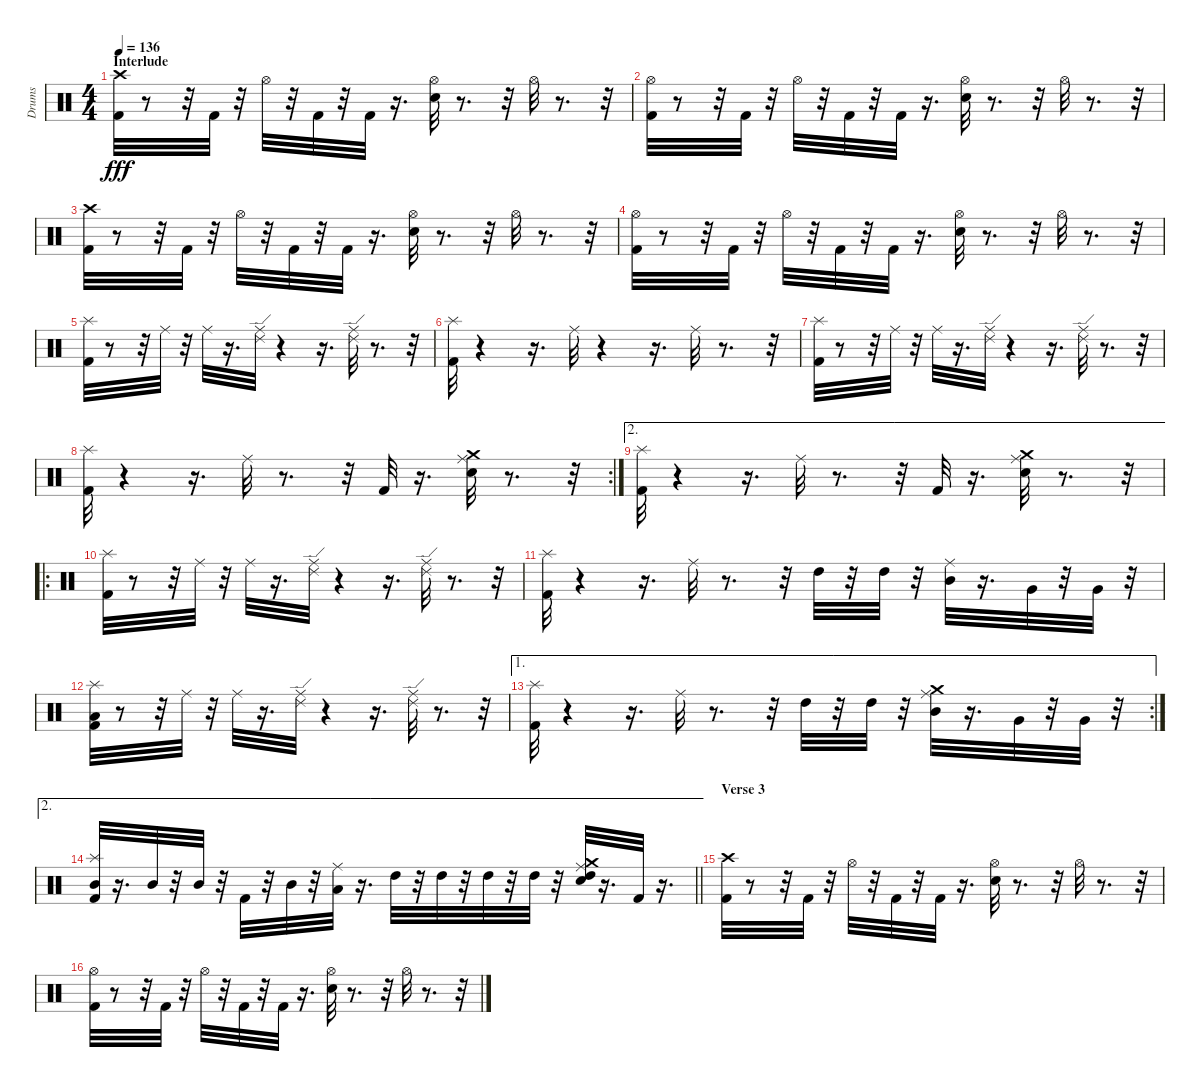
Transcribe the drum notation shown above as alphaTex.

\track ("Drums" "Drums") {instrument percussion}
\staff {score}
\articulation defaults
\ts (4 4)
\section ("" "Interlude")
\tempo 136
\clef neutral
\ks c
("Crash high (hit)" "Kick (hit) 2").32{dy fff} r.8 r.32 "Kick (hit) 2".32 r.32 "Hi-Hat (open)".32 r.32 "Kick (hit) 2".32 r.32 "Kick (hit) 2".32 r.16{d} ("Hi-Hat (open)" "Electric Snare (hit)").32 r.8{d} r.32 "Hi-Hat (open)".32 r.8{d} r.32 |
("Hi-Hat (open)" "Kick (hit) 2").32 r.8 r.32 "Kick (hit) 2".32 r.32 "Hi-Hat (open)".32 r.32 "Kick (hit) 2".32 r.32 "Kick (hit) 2".32 r.16{d} ("Hi-Hat (open)" "Electric Snare (hit)").32 r.8{d} r.32 "Hi-Hat (open)".32 r.8{d} r.32 |
("Crash high (hit)" "Kick (hit) 2").32 r.8 r.32 "Kick (hit) 2".32 r.32 "Hi-Hat (open)".32 r.32 "Kick (hit) 2".32 r.32 "Kick (hit) 2".32 r.16{d} ("Hi-Hat (open)" "Electric Snare (hit)").32 r.8{d} r.32 "Hi-Hat (open)".32 r.8{d} r.32 |
("Hi-Hat (open)" "Kick (hit) 2").32 r.8 r.32 "Kick (hit) 2".32 r.32 "Hi-Hat (open)".32 r.32 "Kick (hit) 2".32 r.32 "Kick (hit) 2".32 r.16{d} ("Hi-Hat (open)" "Electric Snare (hit)").32 r.8{d} r.32 "Hi-Hat (open)".32 r.8{d} r.32 |
("Kick (hit) 2" "Splash (hit)").32 r.8 r.32 "Ride (middle)".32 r.32 "Ride (middle)".32 r.16{d} ("Ride (edge) 2" "Ride (middle)").32 r.4 r.16{d} ("Ride (edge) 2" "Ride (middle)").32 r.8{d} r.32 |
("Splash (hit)" "Kick (hit) 2").32 r.4 r.16{d} "Ride (middle)".32 r.4 r.16{d} "Ride (middle)".32 r.8{d} r.32 |
("Splash (hit)" "Kick (hit) 2").32 r.8 r.32 "Ride (middle)".32 r.32 "Ride (middle)".32 r.16{d} ("Ride (edge) 2" "Ride (middle)").32 r.4 r.16{d} ("Ride (edge) 2" "Ride (middle)").32 r.8{d} r.32 |
\rc 2
("Splash (hit)" "Kick (hit) 2").32 r.4 r.16{d} "Ride (middle)".32 r.8{d} r.32 "Kick (hit) 2".32 r.16{d} ("Crash medium (hit)" "Ride (middle)" "Electric Snare (hit)").32 r.8{d} r.32 |
\ae 2
("Splash (hit)" "Kick (hit) 2").32 r.4 r.16{d} "Ride (middle)".32 r.8{d} r.32 "Kick (hit) 2".32 r.16{d} ("Crash medium (hit)" "Ride (middle)" "Electric Snare (hit)").32 r.8{d} r.32 |
\ro
("Kick (hit) 2" "Splash (hit)").32 r.8 r.32 "Ride (middle)".32 r.32 "Ride (middle)".32 r.16{d} ("Ride (edge) 2" "Ride (middle)").32 r.4 r.16{d} ("Ride (edge) 2" "Ride (middle)").32 r.8{d} r.32 |
("Splash (hit)" "Kick (hit) 2").32 r.4 r.16{d} "Ride (middle)".32 r.8{d} r.32 "High Tom (hit)".32 r.32 "High Tom (hit)".32 r.32 ("Mid Tom (hit)" "Ride (middle)").32 r.16{d} "Very Low Tom (hit)".32 r.32 "Very Low Tom (hit)".32 r.32 |
("Low Floor Tom (hit)" "Splash (hit)" "Kick (hit) 2").32 r.8 r.32 "Ride (middle)".32 r.32 "Ride (middle)".32 r.16{d} ("Ride (edge) 2" "Ride (middle)").32 r.4 r.16{d} ("Ride (edge) 2" "Ride (middle)").32 r.8{d} r.32 |
\ae 1
\rc 2
("Splash (hit)" "Kick (hit) 2").32 r.4 r.16{d} "Ride (middle)".32 r.8{d} r.32 "High Tom (hit)".32 r.32 "High Tom (hit)".32 r.32 ("Mid Tom (hit)" "Crash medium (hit)" "Ride (middle)").32 r.16{d} "Very Low Tom (hit)".32 r.32 "Very Low Tom (hit)".32 r.32 |
\ae 2
\barLineRight lightlight
("Mid Tom (hit)" "Splash (hit)" "Kick (hit) 2").32 r.16{d} "Mid Tom (hit)".32 r.32 "Mid Tom (hit)".32 r.32 "Kick (hit) 2".32 r.32 "Mid Tom (hit)".32 r.32 ("Low Floor Tom (hit)" "Ride (middle)").32 r.16{d} "High Tom (hit)".32 r.32 "High Tom (hit)".32 r.32 "High Tom (hit)".32 r.32 "High Tom (hit)".32 r.32 ("High Tom (hit)" "Crash medium (hit)" "Ride (middle)" "Electric Snare (hit)").32 r.16{d} "Kick (hit) 2".32 r.16{d} |
\section ("" "Verse 3")
("Crash high (hit)" "Kick (hit) 2").32 r.8 r.32 "Kick (hit) 2".32 r.32 "Hi-Hat (open)".32 r.32 "Kick (hit) 2".32 r.32 "Kick (hit) 2".32 r.16{d} ("Hi-Hat (open)" "Electric Snare (hit)").32 r.8{d} r.32 "Hi-Hat (open)".32 r.8{d} r.32 |
("Hi-Hat (open)" "Kick (hit) 2").32 r.8 r.32 "Kick (hit) 2".32 r.32 "Hi-Hat (open)".32 r.32 "Kick (hit) 2".32 r.32 "Kick (hit) 2".32 r.16{d} ("Hi-Hat (open)" "Electric Snare (hit)").32 r.8{d} r.32 "Hi-Hat (open)".32 r.8{d} r.32
